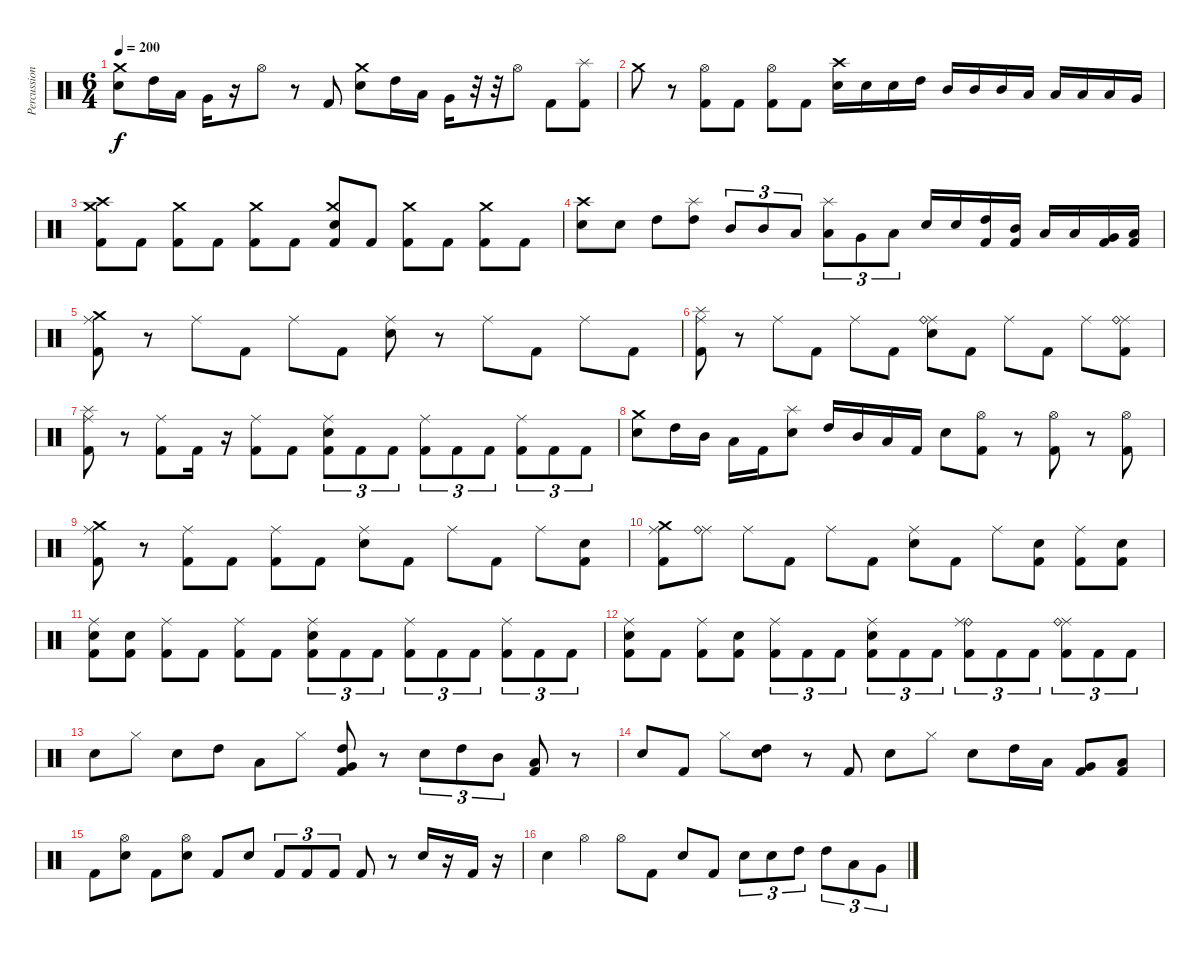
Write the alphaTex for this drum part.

\track ("Percussion" "Percussion") {instrument percussion}
\staff {score}
\articulation defaults
\ts (6 4)
\tempo 200
\clef neutral
\ks c
("Electric Snare (hit)" "Crash medium (hit)").8{dy f} "High Tom (hit)".16 "Low Tom (hit)".16 "Very Low Tom (hit)".16 r.16 "Hi-Hat (open)".8 r.8 "Kick (hit) 2".8 ("Electric Snare (hit)" "Crash medium (hit)").8 "High Tom (hit)".16 "Low Tom (hit)".16 "Very Low Tom (hit)".16 r.32 r.32 "Hi-Hat (open)".8 "Kick (hit) 2".8 ("Splash (hit)" "Kick (hit) 2").8 |
"Crash medium (hit)".8 r.8 ("Kick (hit) 2" "Hi-Hat (open)").8 "Kick (hit) 2".8 ("Kick (hit) 2" "Hi-Hat (open)").8 "Kick (hit) 2".8 ("Electric Snare (hit)" "Crash high (hit)").16 "Electric Snare (hit)".16 "Electric Snare (hit)".16 "High Tom (hit)".16 "Mid Tom (hit)".16 "Mid Tom (hit)".16 "Mid Tom (hit)".16 "Low Tom (hit)".16 "Low Tom (hit)".16 "Low Tom (hit)".16 "Low Tom (hit)".16 "Very Low Tom (hit)".16 |
("Kick (hit) 2" "Crash medium (hit)" "Crash high (hit)").8 "Kick (hit) 2".8 ("Kick (hit) 2" "Crash medium (hit)").8 "Kick (hit) 2".8 ("Kick (hit) 2" "Crash medium (hit)").8 "Kick (hit) 2".8 ("Kick (hit) 2" "Crash medium (hit)" "Electric Snare (hit)").8 "Kick (hit) 2".8 ("Kick (hit) 2" "Crash medium (hit)").8 "Kick (hit) 2".8 ("Kick (hit) 2" "Crash medium (hit)").8 "Kick (hit) 2".8 |
("Electric Snare (hit)" "Crash high (hit)").8 "Electric Snare (hit)".8 "High Tom (hit)".8 ("High Tom (hit)" "Splash (hit)").8 "Mid Tom (hit)".8{tu (3 2)} "Mid Tom (hit)".8{tu (3 2)} "Low Tom (hit)".8{tu (3 2)} ("Low Tom (hit)" "Splash (hit)").8{tu (3 2)} "Very Low Tom (hit)".8{tu (3 2)} "Low Floor Tom (hit)".8{tu (3 2)} "Electric Snare (hit)".16 "Electric Snare (hit)".16 ("High Tom (hit)" "Kick (hit) 2").16 ("Mid Tom (hit)" "Kick (hit) 2").16 "Low Tom (hit)".16 "Low Tom (hit)".16 ("Very Low Tom (hit)" "Kick (hit) 2").16 ("Low Floor Tom (hit)" "Kick (hit) 2").16 |
("Crash medium (hit)" "Ride (middle)" "Kick (hit) 2").8 r.8 "Ride (middle)".8 "Kick (hit) 2".8 "Ride (middle)".8 "Kick (hit) 2".8 ("Ride (middle)" "Electric Snare (hit)").8 r.8 "Ride (middle)".8 "Kick (hit) 2".8 "Ride (middle)".8 "Kick (hit) 2".8 |
("Splash (hit)" "Ride (middle)" "Kick (hit) 2").8 r.8 "Ride (middle)".8 "Kick (hit) 2".8 "Ride (middle)".8 "Kick (hit) 2".8 ("Ride (middle)" "Ride (bell)" "Electric Snare (hit)").8 "Kick (hit) 2".8 "Ride (middle)".8 "Kick (hit) 2".8 "Ride (middle)".8 ("Ride (middle)" "Ride (bell)" "Kick (hit) 2").8 |
("Ride (middle)" "Kick (hit) 2" "Splash (hit)").8 r.8 ("Ride (middle)" "Kick (hit) 2").8 "Kick (hit) 2".16 r.16 ("Ride (middle)" "Kick (hit) 2").8 "Kick (hit) 2".8 ("Ride (middle)" "Kick (hit) 2" "Electric Snare (hit)").8{tu (3 2)} "Kick (hit) 2".8{tu (3 2)} "Kick (hit) 2".8{tu (3 2)} ("Ride (middle)" "Kick (hit) 2").8{tu (3 2)} "Kick (hit) 2".8{tu (3 2)} "Kick (hit) 2".8{tu (3 2)} ("Ride (middle)" "Kick (hit) 2").8{tu (3 2)} "Kick (hit) 2".8{tu (3 2)} "Kick (hit) 2".8{tu (3 2)} |
("Electric Snare (hit)" "Crash medium (hit)").8 "High Tom (hit)".16 "Mid Tom (hit)".16 "Low Tom (hit)".16 "Kick (hit) 2".16 ("Electric Snare (hit)" "Splash (hit)").8 "High Tom (hit)".16 "Mid Tom (hit)".16 "Low Tom (hit)".16 "Kick (hit) 2".16 "Electric Snare (hit)".8 ("Hi-Hat (open)" "Kick (hit) 2").8 r.8 ("Hi-Hat (open)" "Kick (hit) 2").8 r.8 ("Hi-Hat (open)" "Kick (hit) 2").8 |
("Ride (middle)" "Kick (hit) 2" "Crash medium (hit)").8 r.8 ("Ride (middle)" "Kick (hit) 2").8 "Kick (hit) 2".8 ("Ride (middle)" "Kick (hit) 2").8 "Kick (hit) 2".8 ("Ride (middle)" "Electric Snare (hit)").8 "Kick (hit) 2".8 "Ride (middle)".8 "Kick (hit) 2".8 "Ride (middle)".8 ("Electric Snare (hit)" "Kick (hit) 2").8 |
("Crash medium (hit)" "Ride (middle)" "Kick (hit) 2").8 ("Ride (middle)" "Ride (bell)").8 "Ride (middle)".8 "Kick (hit) 2".8 "Ride (middle)".8 "Kick (hit) 2".8 ("Ride (middle)" "Electric Snare (hit)").8 "Kick (hit) 2".8 "Ride (middle)".8 ("Electric Snare (hit)" "Kick (hit) 2").8 ("Ride (middle)" "Kick (hit) 2").8 ("Electric Snare (hit)" "Kick (hit) 2").8 |
("Ride (middle)" "Electric Snare (hit)" "Kick (hit) 2").8 ("Electric Snare (hit)" "Kick (hit) 2").8 ("Ride (middle)" "Kick (hit) 2").8 "Kick (hit) 2".8 ("Ride (middle)" "Kick (hit) 2").8 "Kick (hit) 2".8 ("Ride (middle)" "Electric Snare (hit)" "Kick (hit) 2").8{tu (3 2)} "Kick (hit) 2".8{tu (3 2)} "Kick (hit) 2".8{tu (3 2)} ("Ride (middle)" "Kick (hit) 2").8{tu (3 2)} "Kick (hit) 2".8{tu (3 2)} "Kick (hit) 2".8{tu (3 2)} ("Ride (middle)" "Kick (hit) 2").8{tu (3 2)} "Kick (hit) 2".8{tu (3 2)} "Kick (hit) 2".8{tu (3 2)} |
("Ride (middle)" "Electric Snare (hit)" "Kick (hit) 2").8 "Kick (hit) 2".8 ("Ride (middle)" "Kick (hit) 2").8 ("Electric Snare (hit)" "Kick (hit) 2").8 ("Ride (middle)" "Kick (hit) 2").8{tu (3 2)} "Kick (hit) 2".8{tu (3 2)} "Kick (hit) 2".8{tu (3 2)} ("Ride (middle)" "Electric Snare (hit)" "Kick (hit) 2").8{tu (3 2)} "Kick (hit) 2".8{tu (3 2)} "Kick (hit) 2".8{tu (3 2)} ("Kick (hit) 2" "Ride (bell)" "Ride (middle)").8{tu (3 2)} "Kick (hit) 2".8{tu (3 2)} "Kick (hit) 2".8{tu (3 2)} ("Kick (hit) 2" "Ride (middle)" "Ride (bell)").8{tu (3 2)} "Kick (hit) 2".8{tu (3 2)} "Kick (hit) 2".8{tu (3 2)} |
"Electric Snare (hit)".8 "Hi-Hat (closed)".8 "Electric Snare (hit)".8 "High Tom (hit)".8 "Low Tom (hit)".8 "Hi-Hat (closed)".8 ("Kick (hit) 2" "High Tom (hit)" "Very Low Tom (hit)").8 r.8 "Electric Snare (hit)".8{tu (3 2)} "High Tom (hit)".8{tu (3 2)} "Mid Tom (hit)".8{tu (3 2)} ("Low Tom (hit)" "Kick (hit) 2").8 r.8 |
"Electric Snare (hit)".8 "Kick (hit) 2".8 "Hi-Hat (closed)".8 ("High Tom (hit)" "Electric Snare (hit)").8 r.8 "Kick (hit) 2".8 "Electric Snare (hit)".8 "Hi-Hat (closed)".8 "Electric Snare (hit)".8 "High Tom (hit)".16 "Low Tom (hit)".16 ("Very Low Tom (hit)" "Kick (hit) 2").8 ("Low Floor Tom (hit)" "Kick (hit) 2").8 |
"Kick (hit) 2".8 ("Hi-Hat (open)" "Electric Snare (hit)").8 "Kick (hit) 2".8 ("Electric Snare (hit)" "Hi-Hat (open)").8 "Kick (hit) 2".8 "Electric Snare (hit)".8 "Kick (hit) 2".8{tu (3 2)} "Kick (hit) 2".8{tu (3 2)} "Kick (hit) 2".8{tu (3 2)} "Kick (hit) 2".8 r.8 "Electric Snare (hit)".16 r.16 "Kick (hit) 2".16 r.16 |
"Electric Snare (hit)".4 "Hi-Hat (open)".4 "Hi-Hat (open)".8 "Kick (hit) 2".8 "Electric Snare (hit)".8 "Kick (hit) 2".8 "Electric Snare (hit)".8{tu (3 2)} "Electric Snare (hit)".8{tu (3 2)} "High Tom (hit)".8{tu (3 2)} "High Tom (hit)".8{tu (3 2)} "Low Tom (hit)".8{tu (3 2)} "Very Low Tom (hit)".8{tu (3 2)}
